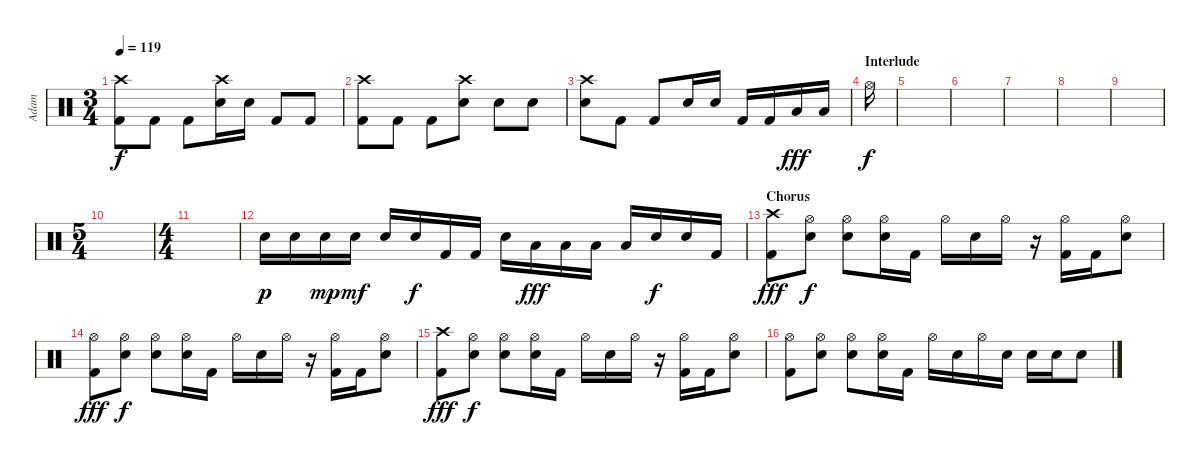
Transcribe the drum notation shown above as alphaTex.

\track ("Adam" "Adam") {instrument percussion}
\staff {score}
\articulation defaults
\ts (3 4)
\tempo 119
\clef neutral
\ks c
("Crash high (hit)" "Kick (hit) 2").8{dy f} "Kick (hit) 2".8 "Kick (hit) 2".8 ("Crash high (hit)" "Electric Snare (hit)").16 "Electric Snare (hit)".16 "Kick (hit) 2".8 "Kick (hit) 2".8 |
("Crash high (hit)" "Kick (hit) 2").8 "Kick (hit) 2".8 "Kick (hit) 2".8 ("Crash high (hit)" "Electric Snare (hit)").8 "Electric Snare (hit)".8 "Electric Snare (hit)".8 |
("Crash high (hit)" "Electric Snare (hit)").8 "Kick (hit) 2".8 "Kick (hit) 2".8 "Electric Snare (hit)".16 "Electric Snare (hit)".16 "Kick (hit) 2".16 "Kick (hit) 2".16 "Low Tom (hit)".16{dy fff} "Low Tom (hit)".16 |
\section ("" "Interlude")
"Hi-Hat (open)".16{dy f} |
|
|
|
|
|
\ts (5 4)
|
\ts (4 4)
|
"Electric Snare (hit)".16{dy p} "Electric Snare (hit)".16 "Electric Snare (hit)".16{dy mp} "Electric Snare (hit)".16{dy mf} "Electric Snare (hit)".16 "Electric Snare (hit)".16{dy f} "Kick (hit) 2".16 "Kick (hit) 2".16 "Electric Snare (hit)".16 "Low Tom (hit)".16{dy fff} "Low Tom (hit)".16 "Low Tom (hit)".16 "Low Tom (hit)".16 "Electric Snare (hit)".16{dy f} "Electric Snare (hit)".16 "Kick (hit) 2".16 |
\section ("" "Chorus")
("Crash high (hit)" "Kick (hit) 2").8{dy fff} ("Hi-Hat (open)" "Electric Snare (hit)").8{dy f} ("Hi-Hat (open)" "Electric Snare (hit)").8 ("Hi-Hat (open)" "Electric Snare (hit)").16 "Kick (hit) 2".16 "Hi-Hat (open)".16 "Electric Snare (hit)".16 "Hi-Hat (open)".16 r.16 ("Hi-Hat (open)" "Kick (hit) 2").16 "Kick (hit) 2".16 ("Hi-Hat (open)" "Electric Snare (hit)").8 |
("Hi-Hat (open)" "Kick (hit) 2").8{dy fff} ("Hi-Hat (open)" "Electric Snare (hit)").8{dy f} ("Hi-Hat (open)" "Electric Snare (hit)").8 ("Hi-Hat (open)" "Electric Snare (hit)").16 "Kick (hit) 2".16 "Hi-Hat (open)".16 "Electric Snare (hit)".16 "Hi-Hat (open)".16 r.16 ("Hi-Hat (open)" "Kick (hit) 2").16 "Kick (hit) 2".16 ("Hi-Hat (open)" "Electric Snare (hit)").8 |
("Crash high (hit)" "Kick (hit) 2").8{dy fff} ("Hi-Hat (open)" "Electric Snare (hit)").8{dy f} ("Hi-Hat (open)" "Electric Snare (hit)").8 ("Hi-Hat (open)" "Electric Snare (hit)").16 "Kick (hit) 2".16 "Hi-Hat (open)".16 "Electric Snare (hit)".16 "Hi-Hat (open)".16 r.16 ("Hi-Hat (open)" "Kick (hit) 2").16 "Kick (hit) 2".16 ("Hi-Hat (open)" "Electric Snare (hit)").8 |
("Hi-Hat (open)" "Kick (hit) 2").8 ("Hi-Hat (open)" "Electric Snare (hit)").8 ("Hi-Hat (open)" "Electric Snare (hit)").8 ("Hi-Hat (open)" "Electric Snare (hit)").16 "Kick (hit) 2".16 "Hi-Hat (open)".16 "Electric Snare (hit)".16 "Hi-Hat (open)".16 "Electric Snare (hit)".16 "Electric Snare (hit)".16 "Electric Snare (hit)".16 "Electric Snare (hit)".8
